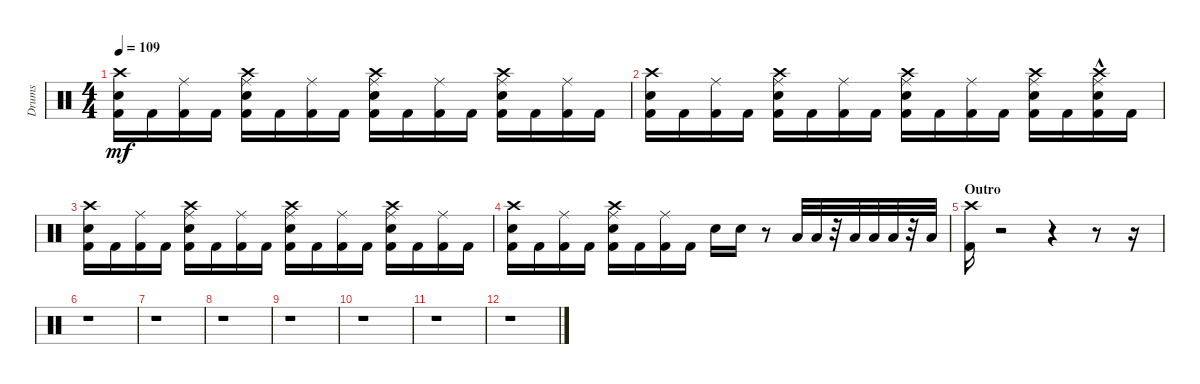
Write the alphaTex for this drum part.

\track ("Drums" "Drums") {instrument percussion}
\staff {score}
\articulation defaults
\ts (4 4)
\tempo 109
\clef neutral
\ks c
("Kick (hit) 2" "Crash high (hit)" "Snare (hit) 2").16{dy mf} "Kick (hit) 2".16 ("Kick (hit) 2" "Ride (middle)").16 "Kick (hit) 2".16 ("Kick (hit) 2" "Snare (hit) 2" "Ride (middle)" "Crash high (hit)").16 "Kick (hit) 2".16 ("Kick (hit) 2" "Ride (middle)").16 "Kick (hit) 2".16 ("Kick (hit) 2" "Crash high (hit)" "Snare (hit) 2" "Ride (middle)").16 "Kick (hit) 2".16 ("Kick (hit) 2" "Ride (middle)").16 "Kick (hit) 2".16 ("Kick (hit) 2" "Snare (hit) 2" "Ride (middle)" "Crash high (hit)").16 "Kick (hit) 2".16 ("Kick (hit) 2" "Ride (middle)").16 "Kick (hit) 2".16 |
("Kick (hit) 2" "Crash high (hit)" "Snare (hit) 2").16 "Kick (hit) 2".16 ("Kick (hit) 2" "Ride (middle)").16 "Kick (hit) 2".16 ("Kick (hit) 2" "Snare (hit) 2" "Ride (middle)" "Crash high (hit)").16 "Kick (hit) 2".16 ("Kick (hit) 2" "Ride (middle)").16 "Kick (hit) 2".16 ("Kick (hit) 2" "Crash high (hit)" "Snare (hit) 2" "Ride (middle)").16 "Kick (hit) 2".16 ("Kick (hit) 2" "Ride (middle)").16 "Kick (hit) 2".16 ("Kick (hit) 2" "Snare (hit) 2" "Ride (middle)" "Crash high (hit)").16 "Kick (hit) 2".16 ("Kick (hit) 2" "Snare (hit) 2"{hac} "Ride (middle)" "Crash high (hit)").16 "Kick (hit) 2".16 |
("Kick (hit) 2" "Crash high (hit)" "Snare (hit) 2").16 "Kick (hit) 2".16 ("Kick (hit) 2" "Ride (middle)").16 "Kick (hit) 2".16 ("Kick (hit) 2" "Snare (hit) 2" "Ride (middle)" "Crash high (hit)").16 "Kick (hit) 2".16 ("Kick (hit) 2" "Ride (middle)").16 "Kick (hit) 2".16 ("Kick (hit) 2" "Crash high (hit)" "Snare (hit) 2" "Ride (middle)").16 "Kick (hit) 2".16 ("Kick (hit) 2" "Ride (middle)").16 "Kick (hit) 2".16 ("Kick (hit) 2" "Snare (hit) 2" "Ride (middle)" "Crash high (hit)").16 "Kick (hit) 2".16 ("Kick (hit) 2" "Ride (middle)").16 "Kick (hit) 2".16 |
("Kick (hit) 2" "Crash high (hit)" "Snare (hit) 2").16 "Kick (hit) 2".16 ("Kick (hit) 2" "Ride (middle)").16 "Kick (hit) 2".16 ("Kick (hit) 2" "Snare (hit) 2" "Ride (middle)" "Crash high (hit)").16 "Kick (hit) 2".16 ("Kick (hit) 2" "Ride (middle)").16 "Kick (hit) 2".16 "Snare (hit) 2".16 "Snare (hit) 2".16 r.8 "Low Tom (hit)".32 "Low Tom (hit)".32 r.32 "Low Tom (hit)".32 "Low Floor Tom (hit)".32 "Low Floor Tom (hit)".32 r.32 "Low Floor Tom (hit)".32 |
\section ("" "Outro")
("Kick (hit) 2" "Crash high (hit)").16 r.2 r.4 r.8 r.16 |
r.1 |
r.1 |
r.1 |
r.1 |
r.1 |
r.1 |
r.1
